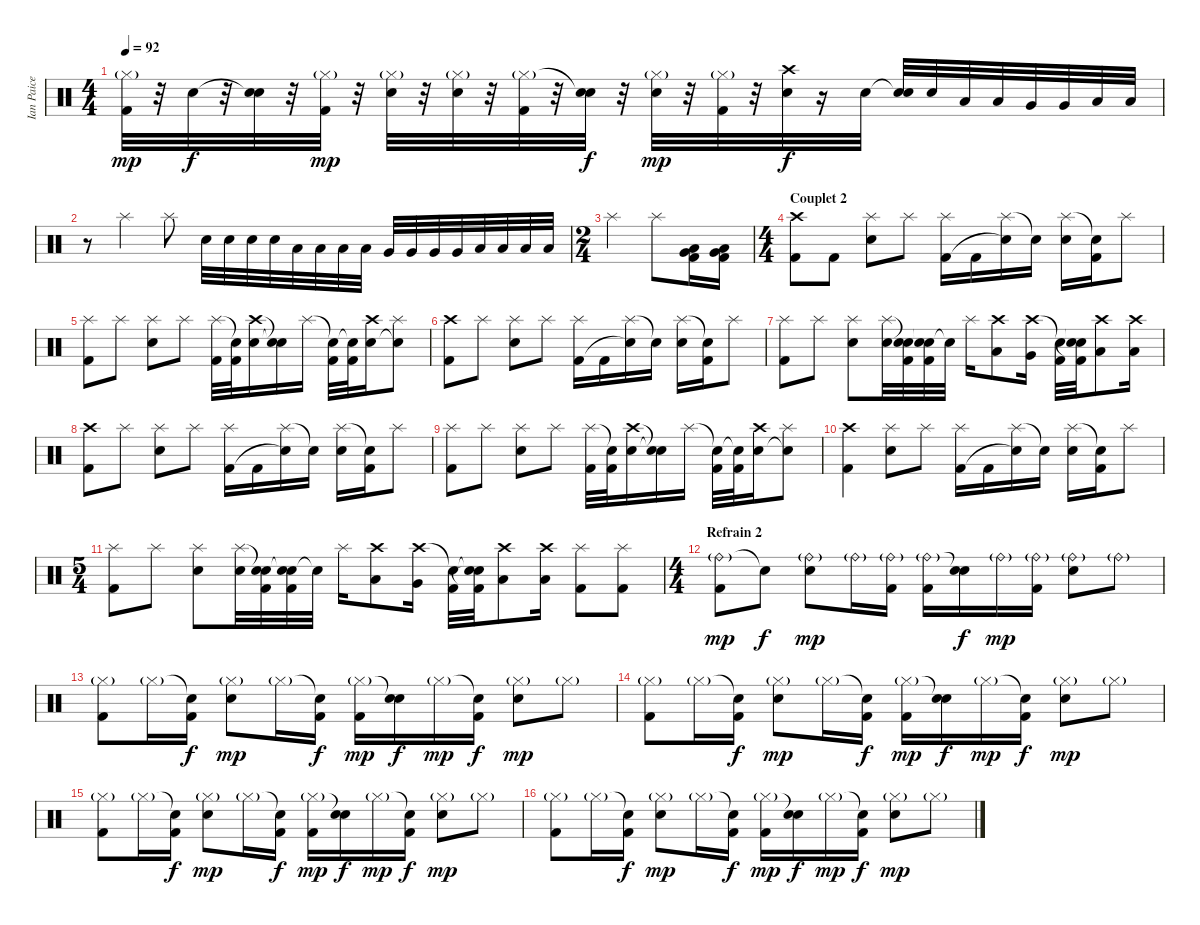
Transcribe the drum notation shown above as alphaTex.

\track ("Ian Paice" "Ian Paice") {instrument percussion}
\staff {score}
\articulation defaults
\ts (4 4)
\tempo 92
\clef neutral
\ks c
("Hi-Hat (closed)"{g} "Kick (hit) 2").32{dy mp} r.32 "Snare (hit) 2".32{dy f} r.32 ("Snare (hit)"{t} "Snare (hit) 2").32 r.32 ("Hi-Hat (closed)"{g} "Kick (hit) 2").32{dy mp} r.32 ("Hi-Hat (closed)"{g} "Snare (hit) 2").32 r.32 ("Hi-Hat (closed)"{g} "Snare (hit) 2").32 r.32 ("Hi-Hat (closed)"{g} "Kick (hit) 2").32 r.32 ("Snare (hit)"{t} "Snare (hit) 2").32{dy f} r.32 ("Hi-Hat (closed)"{g} "Snare (hit) 2").32{dy mp} r.32 ("Hi-Hat (closed)"{g} "Kick (hit) 2").32 r.32 ("Crash high (hit)" "Snare (hit) 2").32{dy f} r.16 "Snare (hit) 2".32 ("Snare (hit)"{t} "Snare (hit) 2").32 "Snare (hit) 2".32 "Low Tom (hit)".32 "Low Tom (hit)".32 "Very Low Tom (hit)".32 "Very Low Tom (hit)".32 "Low Floor Tom (hit)".32 "Low Floor Tom (hit)".32 |
r.8 "Splash (hit)".4 "Splash (hit)".8 "Snare (hit) 2".32 "Snare (hit) 2".32 "Snare (hit) 2".32 "Snare (hit) 2".32 "Low Tom (hit)".32 "Low Tom (hit)".32 "Low Tom (hit)".32 "Low Tom (hit)".32 "Very Low Tom (hit)".32 "Very Low Tom (hit)".32 "Very Low Tom (hit)".32 "Very Low Tom (hit)".32 "Low Floor Tom (hit)".32 "Low Floor Tom (hit)".32 "Low Floor Tom (hit)".32 "Low Floor Tom (hit)".32 |
\ts (2 4)
"Splash (hit)".4 "Splash (hit)".8 ("Very Low Tom (hit)" "Low Tom (hit)" "Kick (hit) 2").16 ("Very Low Tom (hit)" "Low Tom (hit)" "Kick (hit) 2").16 |
\ts (4 4)
\section ("" "Couplet 2")
("Crash high (hit)" "Kick (hit) 2").8 "Kick (hit) 2".8 ("Splash (hit)" "Snare (hit) 2").8 "Splash (hit)".8 ("Splash (hit)" "Kick (hit) 2").16 "Kick (hit) 2".16 ("Splash (hit)" "Snare (hit)"{t}).16 "Snare (hit)"{t}.16 ("Splash (hit)" "Snare (hit) 2").16 ("Snare (hit)"{t} "Kick (hit) 2").16 "Splash (hit)".8 |
("Splash (hit)" "Kick (hit) 2").8 "Splash (hit)".8 ("Splash (hit)" "Snare (hit) 2").8 "Splash (hit)".8 ("Splash (hit)" "Kick (hit) 2").32 ("Snare (hit)"{t} "Kick (hit) 2").32 ("Crash high (hit)" "Snare (hit) 2").16 ("Snare (hit)"{t} "Snare (hit)"{t}).16 "Splash (hit)".16 ("Snare (hit)"{t} "Kick (hit) 2").32 ("Snare (hit)"{t} "Kick (hit) 2").32 ("Crash high (hit)" "Snare (hit) 2").16 ("Splash (hit)" "Snare (hit)"{t}).8 |
("Crash high (hit)" "Kick (hit) 2").8 "Splash (hit)".8 ("Splash (hit)" "Snare (hit) 2").8 "Splash (hit)".8 ("Splash (hit)" "Kick (hit) 2").16 "Kick (hit) 2".16 ("Splash (hit)" "Snare (hit)"{t}).16 "Snare (hit)"{t}.16 ("Splash (hit)" "Snare (hit) 2").16 ("Snare (hit)"{t} "Kick (hit) 2").16 "Splash (hit)".8 |
("Splash (hit)" "Kick (hit) 2").8 "Splash (hit)".8 ("Splash (hit)" "Snare (hit) 2").8 ("Splash (hit)" "Snare (hit) 2").32 ("Snare (hit)"{t} "Snare (hit) 2" "Kick (hit) 2").32 ("Snare (hit)"{t} "Snare (hit) 2" "Kick (hit) 2").32 "Snare (hit)"{t}.32 "Splash (hit)".16 ("Crash high (hit)" "Low Floor Tom (hit)").8 ("Crash high (hit)" "Very Low Tom (hit)").16 ("Snare (hit)"{t} "Kick (hit) 2").32 ("Snare (hit)"{t} "Snare (hit)"{t} "Kick (hit) 2").32 ("Crash high (hit)" "Low Tom (hit)").8 ("Crash high (hit)" "Low Tom (hit)").16 |
("Crash high (hit)" "Kick (hit) 2").8 "Splash (hit)".8 ("Splash (hit)" "Snare (hit) 2").8 "Splash (hit)".8 ("Splash (hit)" "Kick (hit) 2").16 "Kick (hit) 2".16 ("Splash (hit)" "Snare (hit)"{t}).16 "Snare (hit)"{t}.16 ("Splash (hit)" "Snare (hit) 2").16 ("Snare (hit)"{t} "Kick (hit) 2").16 "Splash (hit)".8 |
("Splash (hit)" "Kick (hit) 2").8 "Splash (hit)".8 ("Splash (hit)" "Snare (hit) 2").8 "Splash (hit)".8 ("Splash (hit)" "Kick (hit) 2").32 ("Snare (hit)"{t} "Kick (hit) 2").32 ("Crash high (hit)" "Snare (hit) 2").16 ("Snare (hit)"{t} "Snare (hit)"{t}).16 "Splash (hit)".16 ("Snare (hit)"{t} "Kick (hit) 2").32 ("Snare (hit)"{t} "Kick (hit) 2").32 ("Crash high (hit)" "Snare (hit) 2").16 ("Splash (hit)" "Snare (hit)"{t}).8 |
("Crash high (hit)" "Kick (hit) 2").4 ("Splash (hit)" "Snare (hit) 2").8 "Splash (hit)".8 ("Splash (hit)" "Kick (hit) 2").16 "Kick (hit) 2".16 ("Splash (hit)" "Snare (hit)"{t}).16 "Snare (hit)"{t}.16 ("Splash (hit)" "Snare (hit) 2").16 ("Snare (hit)"{t} "Kick (hit) 2").16 "Splash (hit)".8 |
\ts (5 4)
("Splash (hit)" "Kick (hit) 2").8 "Splash (hit)".8 ("Splash (hit)" "Snare (hit) 2").8 ("Splash (hit)" "Snare (hit) 2").32 ("Snare (hit)"{t} "Snare (hit) 2" "Kick (hit) 2").32 ("Snare (hit)"{t} "Snare (hit) 2" "Kick (hit) 2").32 "Snare (hit)"{t}.32 "Splash (hit)".16 ("Crash high (hit)" "Low Floor Tom (hit)").8 ("Crash high (hit)" "Very Low Tom (hit)").16 ("Snare (hit)"{t} "Kick (hit) 2").32 ("Snare (hit)"{t} "Snare (hit)"{t} "Kick (hit) 2").32 ("Crash high (hit)" "Low Tom (hit)").8 ("Crash high (hit)" "Low Tom (hit)").16 ("Splash (hit)" "Kick (hit) 2").8 ("Splash (hit)" "Kick (hit) 2").8 |
\ts (4 4)
\section ("" "Refrain 2")
("Ride (bell)"{g} "Kick (hit) 2").8{dy mp} "Snare (hit)"{t}.8{dy f} ("Ride (bell)"{g} "Snare (hit) 2").8{dy mp} "Ride (bell)"{g}.16 ("Ride (bell)"{g} "Kick (hit) 2").16 ("Ride (bell)"{g} "Kick (hit) 2").16 ("Snare (hit)"{t} "Snare (hit) 2").16{dy f} "Ride (bell)"{g}.16{dy mp} ("Ride (bell)"{g} "Kick (hit) 2").16 ("Ride (bell)"{g} "Snare (hit) 2").8 "Ride (bell)"{g}.8 |
("Hi-Hat (closed)"{g} "Kick (hit) 2").8 "Hi-Hat (closed)"{g}.16 ("Snare (hit)"{t} "Kick (hit) 2").16{dy f} ("Hi-Hat (closed)"{g} "Snare (hit) 2").8{dy mp} "Hi-Hat (closed)"{g}.16 ("Snare (hit)"{t} "Kick (hit) 2").16{dy f} ("Hi-Hat (closed)"{g} "Kick (hit) 2").16{dy mp} ("Snare (hit)"{t} "Snare (hit) 2").16{dy f} "Hi-Hat (closed)"{g}.16{dy mp} ("Snare (hit)"{t} "Kick (hit) 2").16{dy f} ("Hi-Hat (closed)"{g} "Snare (hit) 2").8{dy mp} "Hi-Hat (closed)"{g}.8 |
("Hi-Hat (closed)"{g} "Kick (hit) 2").8 "Hi-Hat (closed)"{g}.16 ("Snare (hit)"{t} "Kick (hit) 2").16{dy f} ("Hi-Hat (closed)"{g} "Snare (hit) 2").8{dy mp} "Hi-Hat (closed)"{g}.16 ("Snare (hit)"{t} "Kick (hit) 2").16{dy f} ("Hi-Hat (closed)"{g} "Kick (hit) 2").16{dy mp} ("Snare (hit)"{t} "Snare (hit) 2").16{dy f} "Hi-Hat (closed)"{g}.16{dy mp} ("Snare (hit)"{t} "Kick (hit) 2").16{dy f} ("Hi-Hat (closed)"{g} "Snare (hit) 2").8{dy mp} "Hi-Hat (closed)"{g}.8 |
("Hi-Hat (closed)"{g} "Kick (hit) 2").8 "Hi-Hat (closed)"{g}.16 ("Snare (hit)"{t} "Kick (hit) 2").16{dy f} ("Hi-Hat (closed)"{g} "Snare (hit) 2").8{dy mp} "Hi-Hat (closed)"{g}.16 ("Snare (hit)"{t} "Kick (hit) 2").16{dy f} ("Hi-Hat (closed)"{g} "Kick (hit) 2").16{dy mp} ("Snare (hit)"{t} "Snare (hit) 2").16{dy f} "Hi-Hat (closed)"{g}.16{dy mp} ("Snare (hit)"{t} "Kick (hit) 2").16{dy f} ("Hi-Hat (closed)"{g} "Snare (hit) 2").8{dy mp} "Hi-Hat (closed)"{g}.8 |
("Hi-Hat (closed)"{g} "Kick (hit) 2").8 "Hi-Hat (closed)"{g}.16 ("Snare (hit)"{t} "Kick (hit) 2").16{dy f} ("Hi-Hat (closed)"{g} "Snare (hit) 2").8{dy mp} "Hi-Hat (closed)"{g}.16 ("Snare (hit)"{t} "Kick (hit) 2").16{dy f} ("Hi-Hat (closed)"{g} "Kick (hit) 2").16{dy mp} ("Snare (hit)"{t} "Snare (hit) 2").16{dy f} "Hi-Hat (closed)"{g}.16{dy mp} ("Snare (hit)"{t} "Kick (hit) 2").16{dy f} ("Hi-Hat (closed)"{g} "Snare (hit) 2").8{dy mp} "Hi-Hat (closed)"{g}.8
